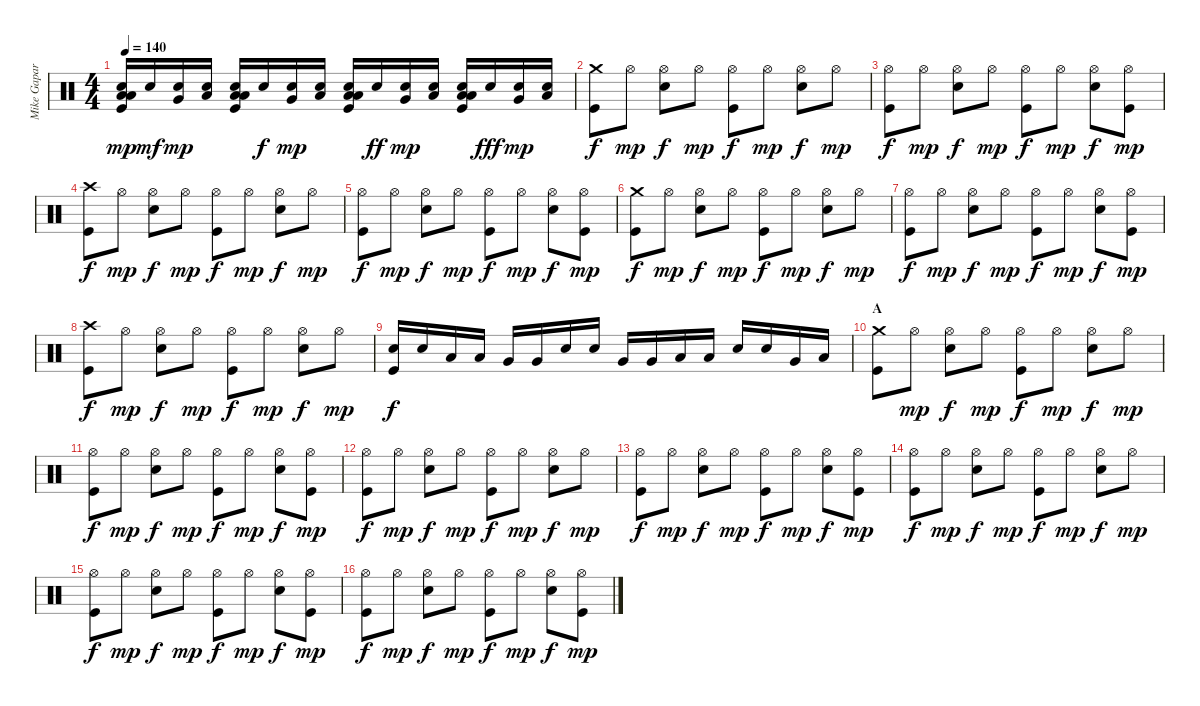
\track ("Mike Gapar" "Mike Gapar") {instrument percussion}
\staff {score}
\articulation defaults
\ts (4 4)
\tempo 140
\clef neutral
\ks c
("Low Tom (hit)" "Electric Snare (hit)" "Low Floor Tom (hit)" "Kick (hit)").16{dy mp} "Electric Snare (hit)".16{dy mf} ("Electric Snare (hit)" "Very Low Tom (hit)").16{dy mp} ("Electric Snare (hit)" "Low Floor Tom (hit)").16 ("Low Tom (hit)" "Electric Snare (hit)" "Low Floor Tom (hit)" "Kick (hit)").16 "Electric Snare (hit)".16{dy f} ("Electric Snare (hit)" "Very Low Tom (hit)").16{dy mp} ("Electric Snare (hit)" "Low Floor Tom (hit)").16 ("Low Tom (hit)" "Electric Snare (hit)" "Low Floor Tom (hit)" "Kick (hit)").16 "Electric Snare (hit)".16{dy ff} ("Electric Snare (hit)" "Very Low Tom (hit)").16{dy mp} ("Electric Snare (hit)" "Low Floor Tom (hit)").16 ("Low Tom (hit)" "Electric Snare (hit)" "Low Floor Tom (hit)" "Kick (hit)").16 "Electric Snare (hit)".16{dy fff} ("Electric Snare (hit)" "Very Low Tom (hit)").16{dy mp} ("Electric Snare (hit)" "Low Floor Tom (hit)").16 |
("Crash medium (hit)" "Kick (hit)").8{dy f} "Hi-Hat (open)".8{dy mp} ("Hi-Hat (open)" "Electric Snare (hit)").8{dy f} "Hi-Hat (open)".8{dy mp} ("Hi-Hat (open)" "Kick (hit)").8{dy f} "Hi-Hat (open)".8{dy mp} ("Hi-Hat (open)" "Electric Snare (hit)").8{dy f} "Hi-Hat (open)".8{dy mp} |
("Hi-Hat (open)" "Kick (hit)").8{dy f} "Hi-Hat (open)".8{dy mp} ("Hi-Hat (open)" "Electric Snare (hit)").8{dy f} "Hi-Hat (open)".8{dy mp} ("Hi-Hat (open)" "Kick (hit)").8{dy f} "Hi-Hat (open)".8{dy mp} ("Hi-Hat (open)" "Electric Snare (hit)").8{dy f} ("Hi-Hat (open)" "Kick (hit)").8{dy mp} |
("Crash high (hit)" "Kick (hit)").8{dy f} "Hi-Hat (open)".8{dy mp} ("Hi-Hat (open)" "Electric Snare (hit)").8{dy f} "Hi-Hat (open)".8{dy mp} ("Hi-Hat (open)" "Kick (hit)").8{dy f} "Hi-Hat (open)".8{dy mp} ("Hi-Hat (open)" "Electric Snare (hit)").8{dy f} "Hi-Hat (open)".8{dy mp} |
("Hi-Hat (open)" "Kick (hit)").8{dy f} "Hi-Hat (open)".8{dy mp} ("Hi-Hat (open)" "Electric Snare (hit)").8{dy f} "Hi-Hat (open)".8{dy mp} ("Hi-Hat (open)" "Kick (hit)").8{dy f} "Hi-Hat (open)".8{dy mp} ("Hi-Hat (open)" "Electric Snare (hit)").8{dy f} ("Hi-Hat (open)" "Kick (hit)").8{dy mp} |
("Crash medium (hit)" "Kick (hit)").8{dy f} "Hi-Hat (open)".8{dy mp} ("Hi-Hat (open)" "Electric Snare (hit)").8{dy f} "Hi-Hat (open)".8{dy mp} ("Hi-Hat (open)" "Kick (hit)").8{dy f} "Hi-Hat (open)".8{dy mp} ("Hi-Hat (open)" "Electric Snare (hit)").8{dy f} "Hi-Hat (open)".8{dy mp} |
("Hi-Hat (open)" "Kick (hit)").8{dy f} "Hi-Hat (open)".8{dy mp} ("Hi-Hat (open)" "Electric Snare (hit)").8{dy f} "Hi-Hat (open)".8{dy mp} ("Hi-Hat (open)" "Kick (hit)").8{dy f} "Hi-Hat (open)".8{dy mp} ("Hi-Hat (open)" "Electric Snare (hit)").8{dy f} ("Hi-Hat (open)" "Kick (hit)").8{dy mp} |
("Crash high (hit)" "Kick (hit)").8{dy f} "Hi-Hat (open)".8{dy mp} ("Hi-Hat (open)" "Electric Snare (hit)").8{dy f} "Hi-Hat (open)".8{dy mp} ("Hi-Hat (open)" "Kick (hit)").8{dy f} "Hi-Hat (open)".8{dy mp} ("Hi-Hat (open)" "Electric Snare (hit)").8{dy f} "Hi-Hat (open)".8{dy mp} |
("Electric Snare (hit)" "Kick (hit)").16{dy f} "Electric Snare (hit)".16 "Low Tom (hit)".16 "Low Tom (hit)".16 "Very Low Tom (hit)".16 "Very Low Tom (hit)".16 "Electric Snare (hit)".16 "Electric Snare (hit)".16 "Very Low Tom (hit)".16 "Very Low Tom (hit)".16 "Low Floor Tom (hit)".16 "Low Floor Tom (hit)".16 "Electric Snare (hit)".16 "Electric Snare (hit)".16 "Very Low Tom (hit)".16 "Low Floor Tom (hit)".16 |
\section ("" "A")
("Crash medium (hit)" "Kick (hit)").8 "Hi-Hat (open)".8{dy mp} ("Hi-Hat (open)" "Electric Snare (hit)").8{dy f} "Hi-Hat (open)".8{dy mp} ("Hi-Hat (open)" "Kick (hit)").8{dy f} "Hi-Hat (open)".8{dy mp} ("Hi-Hat (open)" "Electric Snare (hit)").8{dy f} "Hi-Hat (open)".8{dy mp} |
("Hi-Hat (open)" "Kick (hit)").8{dy f} "Hi-Hat (open)".8{dy mp} ("Hi-Hat (open)" "Electric Snare (hit)").8{dy f} "Hi-Hat (open)".8{dy mp} ("Hi-Hat (open)" "Kick (hit)").8{dy f} "Hi-Hat (open)".8{dy mp} ("Hi-Hat (open)" "Electric Snare (hit)").8{dy f} ("Hi-Hat (open)" "Kick (hit)").8{dy mp} |
("Hi-Hat (open)" "Kick (hit)").8{dy f} "Hi-Hat (open)".8{dy mp} ("Hi-Hat (open)" "Electric Snare (hit)").8{dy f} "Hi-Hat (open)".8{dy mp} ("Hi-Hat (open)" "Kick (hit)").8{dy f} "Hi-Hat (open)".8{dy mp} ("Hi-Hat (open)" "Electric Snare (hit)").8{dy f} "Hi-Hat (open)".8{dy mp} |
("Hi-Hat (open)" "Kick (hit)").8{dy f} "Hi-Hat (open)".8{dy mp} ("Hi-Hat (open)" "Electric Snare (hit)").8{dy f} "Hi-Hat (open)".8{dy mp} ("Hi-Hat (open)" "Kick (hit)").8{dy f} "Hi-Hat (open)".8{dy mp} ("Hi-Hat (open)" "Electric Snare (hit)").8{dy f} ("Hi-Hat (open)" "Kick (hit)").8{dy mp} |
("Hi-Hat (open)" "Kick (hit)").8{dy f} "Hi-Hat (open)".8{dy mp} ("Hi-Hat (open)" "Electric Snare (hit)").8{dy f} "Hi-Hat (open)".8{dy mp} ("Hi-Hat (open)" "Kick (hit)").8{dy f} "Hi-Hat (open)".8{dy mp} ("Hi-Hat (open)" "Electric Snare (hit)").8{dy f} "Hi-Hat (open)".8{dy mp} |
("Hi-Hat (open)" "Kick (hit)").8{dy f} "Hi-Hat (open)".8{dy mp} ("Hi-Hat (open)" "Electric Snare (hit)").8{dy f} "Hi-Hat (open)".8{dy mp} ("Hi-Hat (open)" "Kick (hit)").8{dy f} "Hi-Hat (open)".8{dy mp} ("Hi-Hat (open)" "Electric Snare (hit)").8{dy f} ("Hi-Hat (open)" "Kick (hit)").8{dy mp} |
("Hi-Hat (open)" "Kick (hit)").8{dy f} "Hi-Hat (open)".8{dy mp} ("Hi-Hat (open)" "Electric Snare (hit)").8{dy f} "Hi-Hat (open)".8{dy mp} ("Hi-Hat (open)" "Kick (hit)").8{dy f} "Hi-Hat (open)".8{dy mp} ("Hi-Hat (open)" "Electric Snare (hit)").8{dy f} ("Hi-Hat (open)" "Kick (hit)").8{dy mp}
